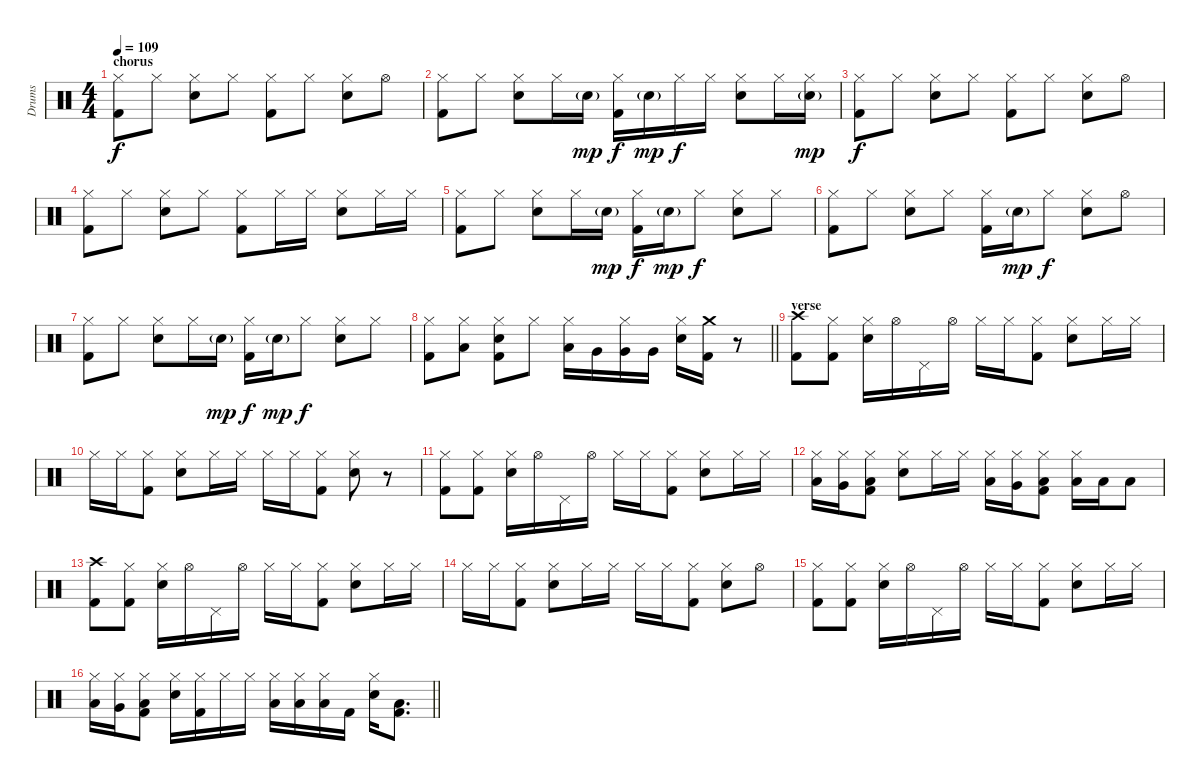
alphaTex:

\track ("Drums" "Drums") {instrument percussion}
\staff {score}
\articulation defaults
\ts (4 4)
\section ("" "chorus")
\tempo 109
\clef neutral
\ks c
("Hi-Hat (closed)" "Kick (hit) 2").8{dy f} "Hi-Hat (closed)".8 ("Hi-Hat (closed)" "Electric Snare (hit)").8 "Hi-Hat (closed)".8 ("Hi-Hat (closed)" "Kick (hit) 2").8 "Hi-Hat (closed)".8 ("Hi-Hat (closed)" "Electric Snare (hit)").8 "Hi-Hat (open)".8 |
("Hi-Hat (closed)" "Kick (hit) 2").8 "Hi-Hat (closed)".8 ("Hi-Hat (closed)" "Electric Snare (hit)").8 "Hi-Hat (closed)".16 "Electric Snare (hit)"{g}.16{dy mp} ("Hi-Hat (closed)" "Kick (hit) 2").16{dy f} "Electric Snare (hit)"{g}.16{dy mp} "Hi-Hat (closed)".16{dy f} "Hi-Hat (closed)".16 ("Hi-Hat (closed)" "Electric Snare (hit)").8 "Hi-Hat (closed)".16 ("Hi-Hat (closed)" "Electric Snare (hit)"{g}).16{dy mp} |
("Hi-Hat (closed)" "Kick (hit) 2").8{dy f} "Hi-Hat (closed)".8 ("Hi-Hat (closed)" "Electric Snare (hit)").8 "Hi-Hat (closed)".8 ("Hi-Hat (closed)" "Kick (hit) 2").8 "Hi-Hat (closed)".8 ("Hi-Hat (closed)" "Electric Snare (hit)").8 "Hi-Hat (open)".8 |
("Hi-Hat (closed)" "Kick (hit) 2").8 "Hi-Hat (closed)".8 ("Hi-Hat (closed)" "Electric Snare (hit)").8 "Hi-Hat (closed)".8 ("Hi-Hat (closed)" "Kick (hit) 2").8 "Hi-Hat (closed)".16 "Hi-Hat (closed)".16 ("Hi-Hat (closed)" "Electric Snare (hit)").8 "Hi-Hat (closed)".16 "Hi-Hat (closed)".16 |
("Hi-Hat (closed)" "Kick (hit) 2").8 "Hi-Hat (closed)".8 ("Hi-Hat (closed)" "Electric Snare (hit)").8 "Hi-Hat (closed)".16 "Electric Snare (hit)"{g}.16{dy mp} ("Hi-Hat (closed)" "Kick (hit) 2").16{dy f} "Electric Snare (hit)"{g}.16{dy mp} "Hi-Hat (closed)".8{dy f} ("Hi-Hat (closed)" "Electric Snare (hit)").8 "Hi-Hat (closed)".8 |
("Hi-Hat (closed)" "Kick (hit) 2").8 "Hi-Hat (closed)".8 ("Hi-Hat (closed)" "Electric Snare (hit)").8 "Hi-Hat (closed)".8 ("Hi-Hat (closed)" "Kick (hit) 2").16 "Electric Snare (hit)"{g}.16{dy mp} "Hi-Hat (closed)".8{dy f} ("Hi-Hat (closed)" "Electric Snare (hit)").8 "Hi-Hat (open)".8 |
("Hi-Hat (closed)" "Kick (hit) 2").8 "Hi-Hat (closed)".8 ("Hi-Hat (closed)" "Electric Snare (hit)").8 "Hi-Hat (closed)".16 "Electric Snare (hit)"{g}.16{dy mp} ("Hi-Hat (closed)" "Kick (hit) 2").16{dy f} "Electric Snare (hit)"{g}.16{dy mp} "Hi-Hat (closed)".8{dy f} ("Hi-Hat (closed)" "Electric Snare (hit)").8 "Hi-Hat (closed)".8 |
\barLineRight lightlight
("Hi-Hat (closed)" "Kick (hit) 2").8 ("Hi-Hat (closed)" "Low Tom (hit)").8 ("Hi-Hat (closed)" "Electric Snare (hit)" "Kick (hit) 2").8 "Hi-Hat (closed)".8 ("Hi-Hat (closed)" "Low Tom (hit)").16 "Very Low Tom (hit)".16 ("Hi-Hat (closed)" "Very Low Tom (hit)").16 "Very Low Tom (hit)".16 ("Hi-Hat (closed)" "Electric Snare (hit)").16 ("Crash medium (hit)" "Kick (hit) 2").16 r.8 |
\section ("" "verse")
("Crash high (hit)" "Kick (hit) 2").8 ("Hi-Hat (closed)" "Kick (hit) 2").8 ("Hi-Hat (closed)" "Electric Snare (hit)").16 "Hi-Hat (open)".16 "Pedal Hi-Hat (hit)".16 "Hi-Hat (open)".16 "Hi-Hat (closed)".16 "Hi-Hat (closed)".16 ("Hi-Hat (closed)" "Kick (hit) 2").8 ("Hi-Hat (closed)" "Electric Snare (hit)").8 "Hi-Hat (closed)".16 "Hi-Hat (closed)".16 |
"Hi-Hat (closed)".16 "Hi-Hat (closed)".16 ("Hi-Hat (closed)" "Kick (hit) 2").8 ("Hi-Hat (closed)" "Electric Snare (hit)").8 "Hi-Hat (closed)".16 "Hi-Hat (closed)".16 "Hi-Hat (closed)".16 "Hi-Hat (closed)".16 ("Hi-Hat (closed)" "Kick (hit) 2").8 ("Hi-Hat (closed)" "Electric Snare (hit)").8 r.8 |
("Hi-Hat (closed)" "Kick (hit) 2").8 ("Hi-Hat (closed)" "Kick (hit) 2").8 ("Hi-Hat (closed)" "Electric Snare (hit)").16 "Hi-Hat (open)".16 "Pedal Hi-Hat (hit)".16 "Hi-Hat (open)".16 "Hi-Hat (closed)".16 "Hi-Hat (closed)".16 ("Hi-Hat (closed)" "Kick (hit) 2").8 ("Hi-Hat (closed)" "Electric Snare (hit)").8 "Hi-Hat (closed)".16 "Hi-Hat (closed)".16 |
("Hi-Hat (closed)" "Low Tom (hit)").16 ("Hi-Hat (closed)" "Very Low Tom (hit)").16 ("Hi-Hat (closed)" "Low Tom (hit)" "Kick (hit) 2").8 ("Hi-Hat (closed)" "Electric Snare (hit)").8 "Hi-Hat (closed)".16 "Hi-Hat (closed)".16 ("Hi-Hat (closed)" "Low Tom (hit)").16 ("Hi-Hat (closed)" "Very Low Tom (hit)").16 ("Hi-Hat (closed)" "Low Floor Tom (hit)" "Kick (hit) 2").8 ("Hi-Hat (closed)" "Low Tom (hit)").16 "Low Tom (hit)".16 "Low Tom (hit)".8 |
("Crash high (hit)" "Kick (hit) 2").8 ("Hi-Hat (closed)" "Kick (hit) 2").8 ("Hi-Hat (closed)" "Electric Snare (hit)").16 "Hi-Hat (open)".16 "Pedal Hi-Hat (hit)".16 "Hi-Hat (open)".16 "Hi-Hat (closed)".16 "Hi-Hat (closed)".16 ("Hi-Hat (closed)" "Kick (hit) 2").8 ("Hi-Hat (closed)" "Electric Snare (hit)").8 "Hi-Hat (closed)".16 "Hi-Hat (closed)".16 |
"Hi-Hat (closed)".16 "Hi-Hat (closed)".16 ("Hi-Hat (closed)" "Kick (hit) 2").8 ("Hi-Hat (closed)" "Electric Snare (hit)").8 "Hi-Hat (closed)".16 "Hi-Hat (closed)".16 "Hi-Hat (closed)".16 "Hi-Hat (closed)".16 ("Hi-Hat (closed)" "Kick (hit) 2").8 ("Hi-Hat (closed)" "Electric Snare (hit)").8 "Hi-Hat (open)".8 |
("Hi-Hat (closed)" "Kick (hit) 2").8 ("Hi-Hat (closed)" "Kick (hit) 2").8 ("Hi-Hat (closed)" "Electric Snare (hit)").16 "Hi-Hat (open)".16 "Pedal Hi-Hat (hit)".16 "Hi-Hat (open)".16 "Hi-Hat (closed)".16 "Hi-Hat (closed)".16 ("Hi-Hat (closed)" "Kick (hit) 2").8 ("Hi-Hat (closed)" "Electric Snare (hit)").8 "Hi-Hat (closed)".16 "Hi-Hat (closed)".16 |
\barLineRight lightlight
("Hi-Hat (closed)" "Low Tom (hit)").16 ("Hi-Hat (closed)" "Very Low Tom (hit)").16 ("Hi-Hat (closed)" "Low Tom (hit)" "Kick (hit) 2").8 ("Hi-Hat (closed)" "Electric Snare (hit)").16 ("Hi-Hat (closed)" "Kick (hit) 2").16 "Hi-Hat (closed)".16 "Hi-Hat (closed)".16 ("Hi-Hat (closed)" "Low Tom (hit)").16 ("Hi-Hat (closed)" "Low Tom (hit)").16 ("Hi-Hat (closed)" "Low Tom (hit)").16 "Kick (hit) 2".16 ("Hi-Hat (closed)" "Electric Snare (hit)").16 ("Low Tom (hit)" "Kick (hit) 2").8{d}
